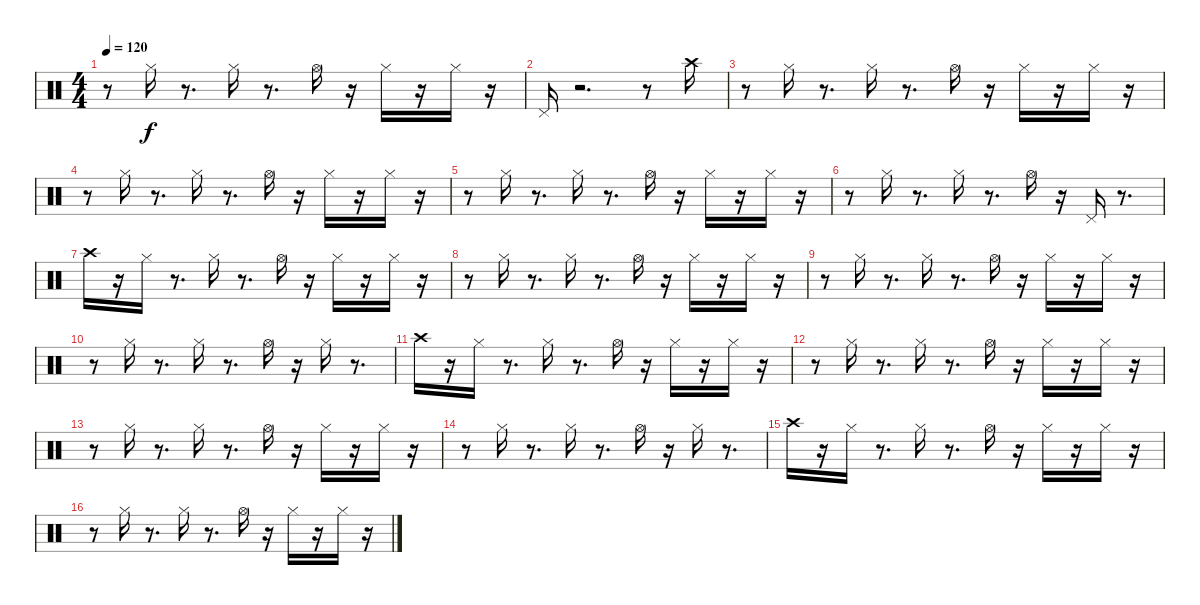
\track "" {instrument percussion}
\staff {score}
\articulation defaults
\ts (4 4)
\tempo 120
\clef neutral
\ks c
r.8{dy f} "Hi-Hat (closed)".16 r.8{d} "Hi-Hat (closed)".16 r.8{d} "Hi-Hat (open)".16 r.16 "Hi-Hat (closed)".16 r.16 "Hi-Hat (closed)".16 r.16 |
"Pedal Hi-Hat (hit)".16 r.2{d} r.8 "Crash high (hit)".16 |
r.8 "Hi-Hat (closed)".16 r.8{d} "Hi-Hat (closed)".16 r.8{d} "Hi-Hat (open)".16 r.16 "Hi-Hat (closed)".16 r.16 "Hi-Hat (closed)".16 r.16 |
r.8 "Hi-Hat (closed)".16 r.8{d} "Hi-Hat (closed)".16 r.8{d} "Hi-Hat (open)".16 r.16 "Hi-Hat (closed)".16 r.16 "Hi-Hat (closed)".16 r.16 |
r.8 "Hi-Hat (closed)".16 r.8{d} "Hi-Hat (closed)".16 r.8{d} "Hi-Hat (open)".16 r.16 "Hi-Hat (closed)".16 r.16 "Hi-Hat (closed)".16 r.16 |
r.8 "Hi-Hat (closed)".16 r.8{d} "Hi-Hat (closed)".16 r.8{d} "Hi-Hat (open)".16 r.16 "Pedal Hi-Hat (hit)".16 r.8{d} |
"Crash high (hit)".16 r.16 "Hi-Hat (closed)".16 r.8{d} "Hi-Hat (closed)".16 r.8{d} "Hi-Hat (open)".16 r.16 "Hi-Hat (closed)".16 r.16 "Hi-Hat (closed)".16 r.16 |
r.8 "Hi-Hat (closed)".16 r.8{d} "Hi-Hat (closed)".16 r.8{d} "Hi-Hat (open)".16 r.16 "Hi-Hat (closed)".16 r.16 "Hi-Hat (closed)".16 r.16 |
r.8 "Hi-Hat (closed)".16 r.8{d} "Hi-Hat (closed)".16 r.8{d} "Hi-Hat (open)".16 r.16 "Hi-Hat (closed)".16 r.16 "Hi-Hat (closed)".16 r.16 |
r.8 "Hi-Hat (closed)".16 r.8{d} "Hi-Hat (closed)".16 r.8{d} "Hi-Hat (open)".16 r.16 "Hi-Hat (closed)".16 r.8{d} |
"Crash high (hit)".16 r.16 "Hi-Hat (closed)".16 r.8{d} "Hi-Hat (closed)".16 r.8{d} "Hi-Hat (open)".16 r.16 "Hi-Hat (closed)".16 r.16 "Hi-Hat (closed)".16 r.16 |
r.8 "Hi-Hat (closed)".16 r.8{d} "Hi-Hat (closed)".16 r.8{d} "Hi-Hat (open)".16 r.16 "Hi-Hat (closed)".16 r.16 "Hi-Hat (closed)".16 r.16 |
r.8 "Hi-Hat (closed)".16 r.8{d} "Hi-Hat (closed)".16 r.8{d} "Hi-Hat (open)".16 r.16 "Hi-Hat (closed)".16 r.16 "Hi-Hat (closed)".16 r.16 |
r.8 "Hi-Hat (closed)".16 r.8{d} "Hi-Hat (closed)".16 r.8{d} "Hi-Hat (open)".16 r.16 "Hi-Hat (closed)".16 r.8{d} |
"Crash high (hit)".16 r.16 "Hi-Hat (closed)".16 r.8{d} "Hi-Hat (closed)".16 r.8{d} "Hi-Hat (open)".16 r.16 "Hi-Hat (closed)".16 r.16 "Hi-Hat (closed)".16 r.16 |
r.8 "Hi-Hat (closed)".16 r.8{d} "Hi-Hat (closed)".16 r.8{d} "Hi-Hat (open)".16 r.16 "Hi-Hat (closed)".16 r.16 "Hi-Hat (closed)".16 r.16
